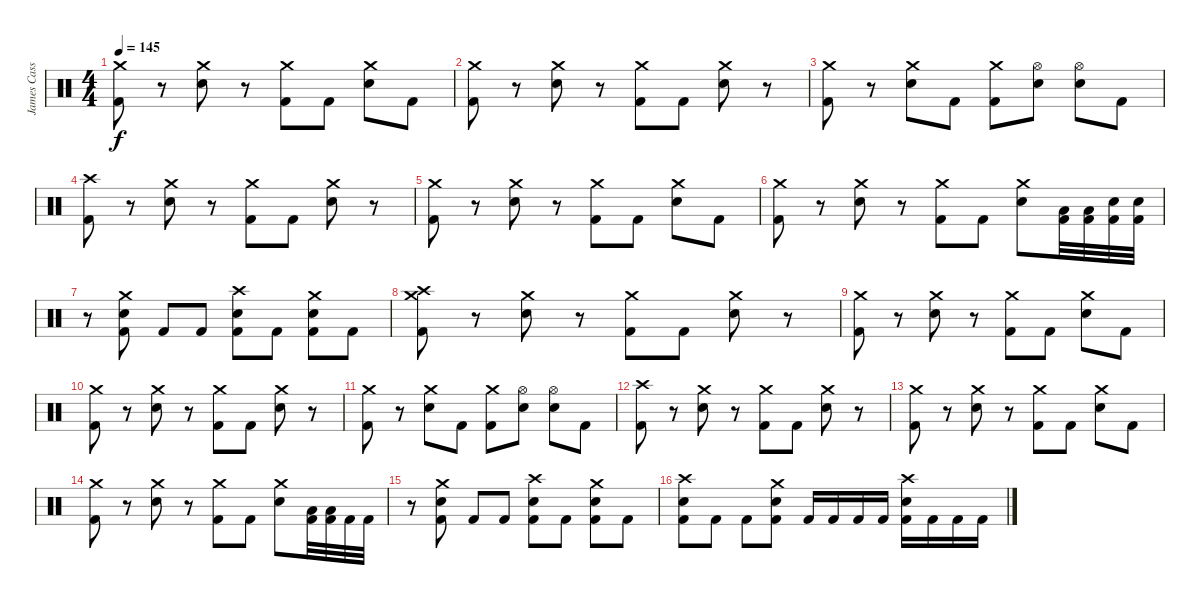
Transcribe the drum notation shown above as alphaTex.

\track ("James Cassells" "James Cass") {instrument percussion}
\staff {score}
\articulation defaults
\ts (4 4)
\tempo 145
\clef neutral
\ks c
("Crash medium (hit)" "Kick (hit) 2").8{dy f} r.8 ("Crash medium (hit)" "Electric Snare (hit)").8 r.8 ("Crash medium (hit)" "Kick (hit) 2").8 "Kick (hit) 2".8 ("Crash medium (hit)" "Electric Snare (hit)").8 "Kick (hit) 2".8 |
("Crash medium (hit)" "Kick (hit) 2").8 r.8 ("Crash medium (hit)" "Electric Snare (hit)").8 r.8 ("Crash medium (hit)" "Kick (hit) 2").8 "Kick (hit) 2".8 ("Crash medium (hit)" "Electric Snare (hit)").8 r.8 |
("Crash medium (hit)" "Kick (hit) 2").8 r.8 ("Crash medium (hit)" "Electric Snare (hit)").8 "Kick (hit) 2".8 ("Crash medium (hit)" "Kick (hit) 2").8 ("Hi-Hat (open)" "Electric Snare (hit)").8 ("Hi-Hat (open)" "Electric Snare (hit)").8 "Kick (hit) 2".8 |
("Crash high (hit)" "Kick (hit) 2").8 r.8 ("Crash medium (hit)" "Electric Snare (hit)").8 r.8 ("Crash medium (hit)" "Kick (hit) 2").8 "Kick (hit) 2".8 ("Crash medium (hit)" "Electric Snare (hit)").8 r.8 |
("Crash medium (hit)" "Kick (hit) 2").8 r.8 ("Crash medium (hit)" "Electric Snare (hit)").8 r.8 ("Crash medium (hit)" "Kick (hit) 2").8 "Kick (hit) 2".8 ("Crash medium (hit)" "Electric Snare (hit)").8 "Kick (hit) 2".8 |
("Crash medium (hit)" "Kick (hit) 2").8 r.8 ("Crash medium (hit)" "Electric Snare (hit)").8 r.8 ("Crash medium (hit)" "Kick (hit) 2").8 "Kick (hit) 2".8 ("Crash medium (hit)" "Electric Snare (hit)").8 ("Low Tom (hit)" "Kick (hit) 2").32 ("Low Floor Tom (hit)" "Kick (hit) 2").32 ("Electric Snare (hit)" "Kick (hit) 2").32 ("Electric Snare (hit)" "Kick (hit) 2").32 |
r.8 ("Crash medium (hit)" "Electric Snare (hit)" "Kick (hit) 2").8 "Kick (hit) 2".8 "Kick (hit) 2".8 ("Crash high (hit)" "Electric Snare (hit)" "Kick (hit) 2").8 "Kick (hit) 2".8 ("Crash medium (hit)" "Electric Snare (hit)" "Kick (hit) 2").8 "Kick (hit) 2".8 |
("Crash high (hit)" "Crash medium (hit)" "Kick (hit) 2").8 r.8 ("Crash medium (hit)" "Electric Snare (hit)").8 r.8 ("Crash medium (hit)" "Kick (hit) 2").8 "Kick (hit) 2".8 ("Crash medium (hit)" "Electric Snare (hit)").8 r.8 |
("Crash medium (hit)" "Kick (hit) 2").8 r.8 ("Crash medium (hit)" "Electric Snare (hit)").8 r.8 ("Crash medium (hit)" "Kick (hit) 2").8 "Kick (hit) 2".8 ("Crash medium (hit)" "Electric Snare (hit)").8 "Kick (hit) 2".8 |
("Crash medium (hit)" "Kick (hit) 2").8 r.8 ("Crash medium (hit)" "Electric Snare (hit)").8 r.8 ("Crash medium (hit)" "Kick (hit) 2").8 "Kick (hit) 2".8 ("Crash medium (hit)" "Electric Snare (hit)").8 r.8 |
("Crash medium (hit)" "Kick (hit) 2").8 r.8 ("Crash medium (hit)" "Electric Snare (hit)").8 "Kick (hit) 2".8 ("Crash medium (hit)" "Kick (hit) 2").8 ("Hi-Hat (open)" "Electric Snare (hit)").8 ("Hi-Hat (open)" "Electric Snare (hit)").8 "Kick (hit) 2".8 |
("Crash high (hit)" "Kick (hit) 2").8 r.8 ("Crash medium (hit)" "Electric Snare (hit)").8 r.8 ("Crash medium (hit)" "Kick (hit) 2").8 "Kick (hit) 2".8 ("Crash medium (hit)" "Electric Snare (hit)").8 r.8 |
("Crash medium (hit)" "Kick (hit) 2").8 r.8 ("Crash medium (hit)" "Electric Snare (hit)").8 r.8 ("Crash medium (hit)" "Kick (hit) 2").8 "Kick (hit) 2".8 ("Crash medium (hit)" "Electric Snare (hit)").8 "Kick (hit) 2".8 |
("Crash medium (hit)" "Kick (hit) 2").8 r.8 ("Crash medium (hit)" "Electric Snare (hit)").8 r.8 ("Crash medium (hit)" "Kick (hit) 2").8 "Kick (hit) 2".8 ("Crash medium (hit)" "Electric Snare (hit)").8 ("Low Tom (hit)" "Kick (hit) 2").32 ("Low Floor Tom (hit)" "Kick (hit) 2").32 "Kick (hit) 2".32 "Kick (hit) 2".32 |
r.8 ("Crash medium (hit)" "Electric Snare (hit)" "Kick (hit) 2").8 "Kick (hit) 2".8 "Kick (hit) 2".8 ("Crash high (hit)" "Electric Snare (hit)" "Kick (hit) 2").8 "Kick (hit) 2".8 ("Crash medium (hit)" "Electric Snare (hit)" "Kick (hit) 2").8 "Kick (hit) 2".8 |
("Crash high (hit)" "Electric Snare (hit)" "Kick (hit) 2").8 "Kick (hit) 2".8 "Kick (hit) 2".8 ("Crash medium (hit)" "Electric Snare (hit)" "Kick (hit) 2").8 "Kick (hit) 2".16 "Kick (hit) 2".16 "Kick (hit) 2".16 "Kick (hit) 2".16 ("Crash high (hit)" "Electric Snare (hit)" "Kick (hit) 2").16 "Kick (hit) 2".16 "Kick (hit) 2".16 "Kick (hit) 2".16
